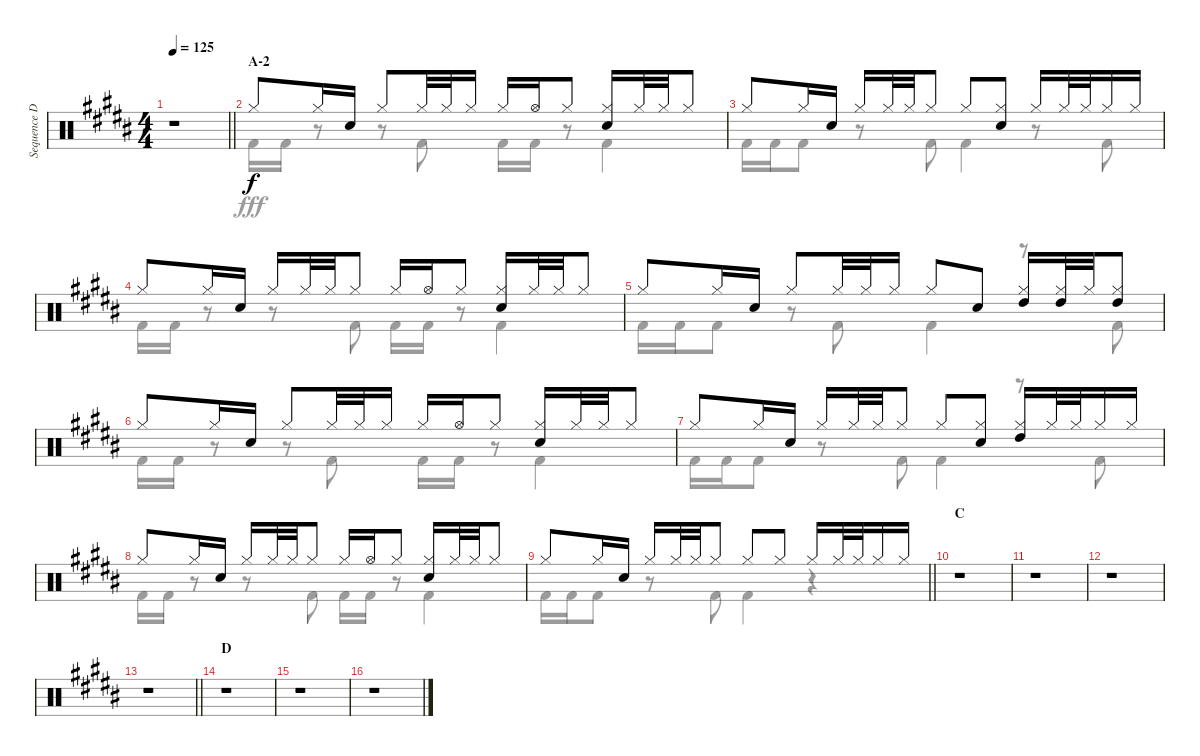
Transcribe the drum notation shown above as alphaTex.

\track ("Sequence Drums" "Sequence D") {instrument percussion}
\staff {score}
\articulation defaults
\voice
\ts (4 4)
\tempo 125
\clef neutral
\barLineRight lightlight
\ks b
r.1{dy f} |
\section ("" "A-2")
"Hi-Hat (closed)".8 "Hi-Hat (closed)".16 "Snare (hit) 2".16 "Hi-Hat (closed)".8 "Hi-Hat (closed)".32 "Hi-Hat (closed)".32 "Hi-Hat (closed)".16 "Hi-Hat (closed)".16 "Hi-Hat (open)".16 "Hi-Hat (closed)".8 ("Hi-Hat (closed)" "Snare (hit) 2").16 "Hi-Hat (closed)".32 "Hi-Hat (closed)".32 "Hi-Hat (closed)".8 |
"Hi-Hat (closed)".8 "Hi-Hat (closed)".16 "Snare (hit) 2".16 "Hi-Hat (closed)".16 "Hi-Hat (closed)".32 "Hi-Hat (closed)".32 "Hi-Hat (closed)".8 "Hi-Hat (closed)".8 ("Hi-Hat (closed)" "Snare (hit) 2").8 "Hi-Hat (closed)".16 "Hi-Hat (closed)".32 "Hi-Hat (closed)".32 "Hi-Hat (closed)".16 "Hi-Hat (closed)".16 |
"Hi-Hat (closed)".8 "Hi-Hat (closed)".16 "Snare (hit) 2".16 "Hi-Hat (closed)".16 "Hi-Hat (closed)".32 "Hi-Hat (closed)".32 "Hi-Hat (closed)".8 "Hi-Hat (closed)".16 "Hi-Hat (open)".16 "Hi-Hat (closed)".8 ("Hi-Hat (closed)" "Snare (hit) 2").16 "Hi-Hat (closed)".32 "Hi-Hat (closed)".32 "Hi-Hat (closed)".8 |
"Hi-Hat (closed)".8 "Hi-Hat (closed)".16 "Snare (hit) 2".16 "Hi-Hat (closed)".8 "Hi-Hat (closed)".32 "Hi-Hat (closed)".32 "Hi-Hat (closed)".16 "Hi-Hat (closed)".8 "Snare (hit) 2".8 ("Hi-Hat (closed)" "High Tom (hit)").16 ("Hi-Hat (closed)" "High Tom (hit)").32 "Hi-Hat (closed)".32 ("Hi-Hat (closed)" "High Tom (hit)").8 |
"Hi-Hat (closed)".8 "Hi-Hat (closed)".16 "Snare (hit) 2".16 "Hi-Hat (closed)".8 "Hi-Hat (closed)".32 "Hi-Hat (closed)".32 "Hi-Hat (closed)".16 "Hi-Hat (closed)".16 "Hi-Hat (open)".16 "Hi-Hat (closed)".8 ("Hi-Hat (closed)" "Snare (hit) 2").16 "Hi-Hat (closed)".32 "Hi-Hat (closed)".32 "Hi-Hat (closed)".8 |
"Hi-Hat (closed)".8 "Hi-Hat (closed)".16 "Snare (hit) 2".16 "Hi-Hat (closed)".16 "Hi-Hat (closed)".32 "Hi-Hat (closed)".32 "Hi-Hat (closed)".8 "Hi-Hat (closed)".8 ("Hi-Hat (closed)" "Snare (hit) 2").8 ("Hi-Hat (closed)" "High Tom (hit)").16 "Hi-Hat (closed)".32 "Hi-Hat (closed)".32 "Hi-Hat (closed)".16 "Hi-Hat (closed)".16 |
"Hi-Hat (closed)".8 "Hi-Hat (closed)".16 "Snare (hit) 2".16 "Hi-Hat (closed)".16 "Hi-Hat (closed)".32 "Hi-Hat (closed)".32 "Hi-Hat (closed)".8 "Hi-Hat (closed)".16 "Hi-Hat (open)".16 "Hi-Hat (closed)".8 ("Hi-Hat (closed)" "Snare (hit) 2").16 "Hi-Hat (closed)".32 "Hi-Hat (closed)".32 "Hi-Hat (closed)".8 |
\barLineRight lightlight "Hi-Hat (closed)".8 "Hi-Hat (closed)".16 "Snare (hit) 2".16 "Hi-Hat (closed)".16 "Hi-Hat (closed)".32 "Hi-Hat (closed)".32 "Hi-Hat (closed)".8 "Hi-Hat (closed)".8 "Hi-Hat (closed)".8 "Hi-Hat (closed)".16 "Hi-Hat (closed)".32 "Hi-Hat (closed)".32 "Hi-Hat (closed)".16 "Hi-Hat (closed)".16
|
\section ("" "C")
r.1 |
r.1 |
r.1 |
\barLineRight lightlight
r.1 |
\section ("" "D")
r.1 |
r.1 |
r.1
\voice
\clef neutral
\ottava regular
\simile none
\barLineRight lightlight
\ks b
r.1{dy fff} |
"Kick (hit) 2".16 "Kick (hit) 2".16 r.8 r.8 "Kick (hit) 2".8 "Kick (hit) 2".16 "Kick (hit) 2".16 r.8 "Kick (hit) 2".4 |
"Kick (hit) 2".16 "Kick (hit) 2".16 "Kick (hit) 2".8 r.8 "Kick (hit) 2".8 "Kick (hit) 2".4 r.8 "Kick (hit) 2".8 |
"Kick (hit) 2".16 "Kick (hit) 2".16 r.8 r.8 "Kick (hit) 2".8 "Kick (hit) 2".16 "Kick (hit) 2".16 r.8 "Kick (hit) 2".4 |
"Kick (hit) 2".16 "Kick (hit) 2".16 "Kick (hit) 2".8 r.8 "Kick (hit) 2".8 "Kick (hit) 2".4 r.8 "Kick (hit) 2".8 |
"Kick (hit) 2".16 "Kick (hit) 2".16 r.8 r.8 "Kick (hit) 2".8 "Kick (hit) 2".16 "Kick (hit) 2".16 r.8 "Kick (hit) 2".4 |
"Kick (hit) 2".16 "Kick (hit) 2".16 "Kick (hit) 2".8 r.8 "Kick (hit) 2".8 "Kick (hit) 2".4 r.8 "Kick (hit) 2".8 |
"Kick (hit) 2".16 "Kick (hit) 2".16 r.8 r.8 "Kick (hit) 2".8 "Kick (hit) 2".16 "Kick (hit) 2".16 r.8 "Kick (hit) 2".4 |
\barLineRight lightlight "Kick (hit) 2".16 "Kick (hit) 2".16 "Kick (hit) 2".8
r.8 "Kick (hit) 2".8 "Kick (hit) 2".4 r.4 |
r.1 |
r.1 |
r.1 |
\barLineRight lightlight
r.1 |
r.1 |
r.1 |
r.1
